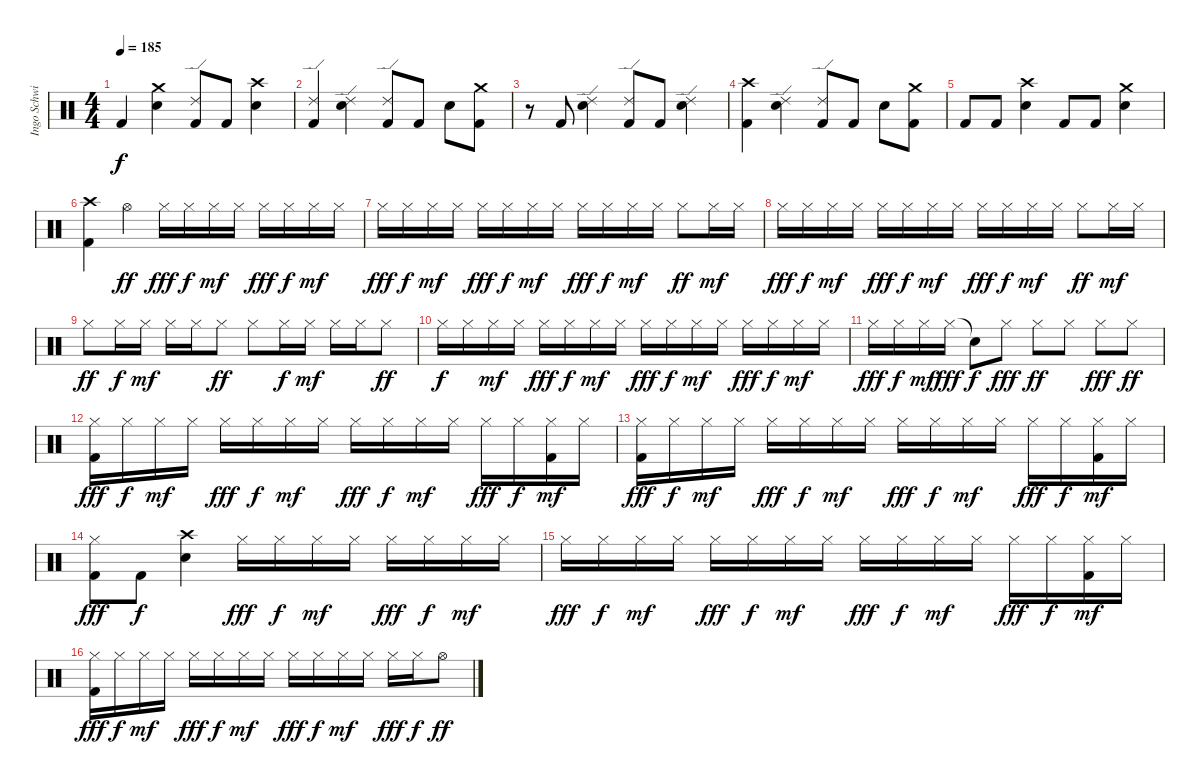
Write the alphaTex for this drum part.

\track ("Ingo Schwischtenberg" "Ingo Schwi") {instrument percussion}
\staff {score}
\articulation defaults
\ts (4 4)
\tempo 185
\clef neutral
\ks c "Kick (hit) 2".4{dy f}
("Crash medium (hit)" "Electric Snare (hit)").4 ("Ride (edge) 2" "Kick (hit) 2").8 "Kick (hit) 2".8 ("Crash high (hit)" "Electric Snare (hit)").4 |
("Ride (edge) 2" "Kick (hit) 2").4 ("Ride (edge) 2" "Electric Snare (hit)").4 ("Ride (edge) 2" "Kick (hit) 2").8 "Kick (hit) 2".8 "Electric Snare (hit)".8 ("Crash medium (hit)" "Kick (hit) 2").8 |
r.8 "Kick (hit) 2".8 ("Ride (edge) 2" "Electric Snare (hit)").4 ("Ride (edge) 2" "Kick (hit) 2").8 "Kick (hit) 2".8 ("Ride (edge) 2" "Electric Snare (hit)").4 |
("Crash high (hit)" "Kick (hit) 2").4 ("Ride (edge) 2" "Electric Snare (hit)").4 ("Ride (edge) 2" "Kick (hit) 2").8 "Kick (hit) 2".8 "Electric Snare (hit)".8 ("Crash medium (hit)" "Kick (hit) 2").8 |
"Kick (hit) 2".8 "Kick (hit) 2".8 ("Crash high (hit)" "Electric Snare (hit)").4 "Kick (hit) 2".8 "Kick (hit) 2".8 ("Crash medium (hit)" "Electric Snare (hit)").4 |
("Crash high (hit)" "Kick (hit) 2").4 "Hi-Hat (open)".4{dy ff} "Hi-Hat (closed)".16{dy fff} "Hi-Hat (closed)".16{dy f} "Hi-Hat (closed)".16{dy mf} "Hi-Hat (closed)".16 "Hi-Hat (closed)".16{dy fff} "Hi-Hat (closed)".16{dy f} "Hi-Hat (closed)".16{dy mf} "Hi-Hat (closed)".16 |
"Hi-Hat (closed)".16{dy fff} "Hi-Hat (closed)".16{dy f} "Hi-Hat (closed)".16{dy mf} "Hi-Hat (closed)".16 "Hi-Hat (closed)".16{dy fff} "Hi-Hat (closed)".16{dy f} "Hi-Hat (closed)".16{dy mf} "Hi-Hat (closed)".16 "Hi-Hat (closed)".16{dy fff} "Hi-Hat (closed)".16{dy f} "Hi-Hat (closed)".16{dy mf} "Hi-Hat (closed)".16 "Hi-Hat (closed)".8{dy ff} "Hi-Hat (closed)".16{dy mf} "Hi-Hat (closed)".16 |
"Hi-Hat (closed)".16{dy fff} "Hi-Hat (closed)".16{dy f} "Hi-Hat (closed)".16{dy mf} "Hi-Hat (closed)".16 "Hi-Hat (closed)".16{dy fff} "Hi-Hat (closed)".16{dy f} "Hi-Hat (closed)".16{dy mf} "Hi-Hat (closed)".16 "Hi-Hat (closed)".16{dy fff} "Hi-Hat (closed)".16{dy f} "Hi-Hat (closed)".16{dy mf} "Hi-Hat (closed)".16 "Hi-Hat (closed)".8{dy ff} "Hi-Hat (closed)".16{dy mf} "Hi-Hat (closed)".16 |
"Hi-Hat (closed)".8{dy ff} "Hi-Hat (closed)".16{dy f} "Hi-Hat (closed)".16{dy mf} "Hi-Hat (closed)".16 "Hi-Hat (closed)".16 "Hi-Hat (closed)".8{dy ff} "Hi-Hat (closed)".8 "Hi-Hat (closed)".16{dy f} "Hi-Hat (closed)".16{dy mf} "Hi-Hat (closed)".16 "Hi-Hat (closed)".16 "Hi-Hat (closed)".8{dy ff} |
"Hi-Hat (closed)".16{dy f} "Hi-Hat (closed)".16 "Hi-Hat (closed)".16{dy mf} "Hi-Hat (closed)".16 "Hi-Hat (closed)".16{dy fff} "Hi-Hat (closed)".16{dy f} "Hi-Hat (closed)".16{dy mf} "Hi-Hat (closed)".16 "Hi-Hat (closed)".16{dy fff} "Hi-Hat (closed)".16{dy f} "Hi-Hat (closed)".16{dy mf} "Hi-Hat (closed)".16 "Hi-Hat (closed)".16{dy fff} "Hi-Hat (closed)".16{dy f} "Hi-Hat (closed)".16{dy mf} "Hi-Hat (closed)".16 |
"Hi-Hat (closed)".16{dy fff} "Hi-Hat (closed)".16{dy f} "Hi-Hat (closed)".16{dy mf} "Hi-Hat (closed)".16{dy fff} "Snare (hit)"{t}.8{dy f} "Hi-Hat (closed)".8{dy fff} "Hi-Hat (closed)".8{dy ff} "Hi-Hat (closed)".8 "Hi-Hat (closed)".8{dy fff} "Hi-Hat (closed)".8{dy ff} |
("Hi-Hat (closed)" "Kick (hit) 2").16{dy fff} "Hi-Hat (closed)".16{dy f} "Hi-Hat (closed)".16{dy mf} "Hi-Hat (closed)".16 "Hi-Hat (closed)".16{dy fff} "Hi-Hat (closed)".16{dy f} "Hi-Hat (closed)".16{dy mf} "Hi-Hat (closed)".16 "Hi-Hat (closed)".16{dy fff} "Hi-Hat (closed)".16{dy f} "Hi-Hat (closed)".16{dy mf} "Hi-Hat (closed)".16 "Hi-Hat (closed)".16{dy fff} "Hi-Hat (closed)".16{dy f} ("Hi-Hat (closed)" "Kick (hit) 2").16{dy mf} "Hi-Hat (closed)".16 |
("Hi-Hat (closed)" "Kick (hit) 2").16{dy fff} "Hi-Hat (closed)".16{dy f} "Hi-Hat (closed)".16{dy mf} "Hi-Hat (closed)".16 "Hi-Hat (closed)".16{dy fff} "Hi-Hat (closed)".16{dy f} "Hi-Hat (closed)".16{dy mf} "Hi-Hat (closed)".16 "Hi-Hat (closed)".16{dy fff} "Hi-Hat (closed)".16{dy f} "Hi-Hat (closed)".16{dy mf} "Hi-Hat (closed)".16 "Hi-Hat (closed)".16{dy fff} "Hi-Hat (closed)".16{dy f} ("Hi-Hat (closed)" "Kick (hit) 2").16{dy mf} "Hi-Hat (closed)".16 |
("Hi-Hat (closed)" "Kick (hit) 2").8{dy fff} "Kick (hit) 2".8{dy f} ("Electric Snare (hit)" "Crash high (hit)").4 "Hi-Hat (closed)".16{dy fff} "Hi-Hat (closed)".16{dy f} "Hi-Hat (closed)".16{dy mf} "Hi-Hat (closed)".16 "Hi-Hat (closed)".16{dy fff} "Hi-Hat (closed)".16{dy f} "Hi-Hat (closed)".16{dy mf} "Hi-Hat (closed)".16 |
"Hi-Hat (closed)".16{dy fff} "Hi-Hat (closed)".16{dy f} "Hi-Hat (closed)".16{dy mf} "Hi-Hat (closed)".16 "Hi-Hat (closed)".16{dy fff} "Hi-Hat (closed)".16{dy f} "Hi-Hat (closed)".16{dy mf} "Hi-Hat (closed)".16 "Hi-Hat (closed)".16{dy fff} "Hi-Hat (closed)".16{dy f} "Hi-Hat (closed)".16{dy mf} "Hi-Hat (closed)".16 "Hi-Hat (closed)".16{dy fff} "Hi-Hat (closed)".16{dy f} ("Hi-Hat (closed)" "Kick (hit) 2").16{dy mf} "Hi-Hat (closed)".16 |
("Hi-Hat (closed)" "Kick (hit) 2").16{dy fff} "Hi-Hat (closed)".16{dy f} "Hi-Hat (closed)".16{dy mf} "Hi-Hat (closed)".16 "Hi-Hat (closed)".16{dy fff} "Hi-Hat (closed)".16{dy f} "Hi-Hat (closed)".16{dy mf} "Hi-Hat (closed)".16 "Hi-Hat (closed)".16{dy fff} "Hi-Hat (closed)".16{dy f} "Hi-Hat (closed)".16{dy mf} "Hi-Hat (closed)".16 "Hi-Hat (closed)".16{dy fff} "Hi-Hat (closed)".16{dy f} "Hi-Hat (open)".8{dy ff}
